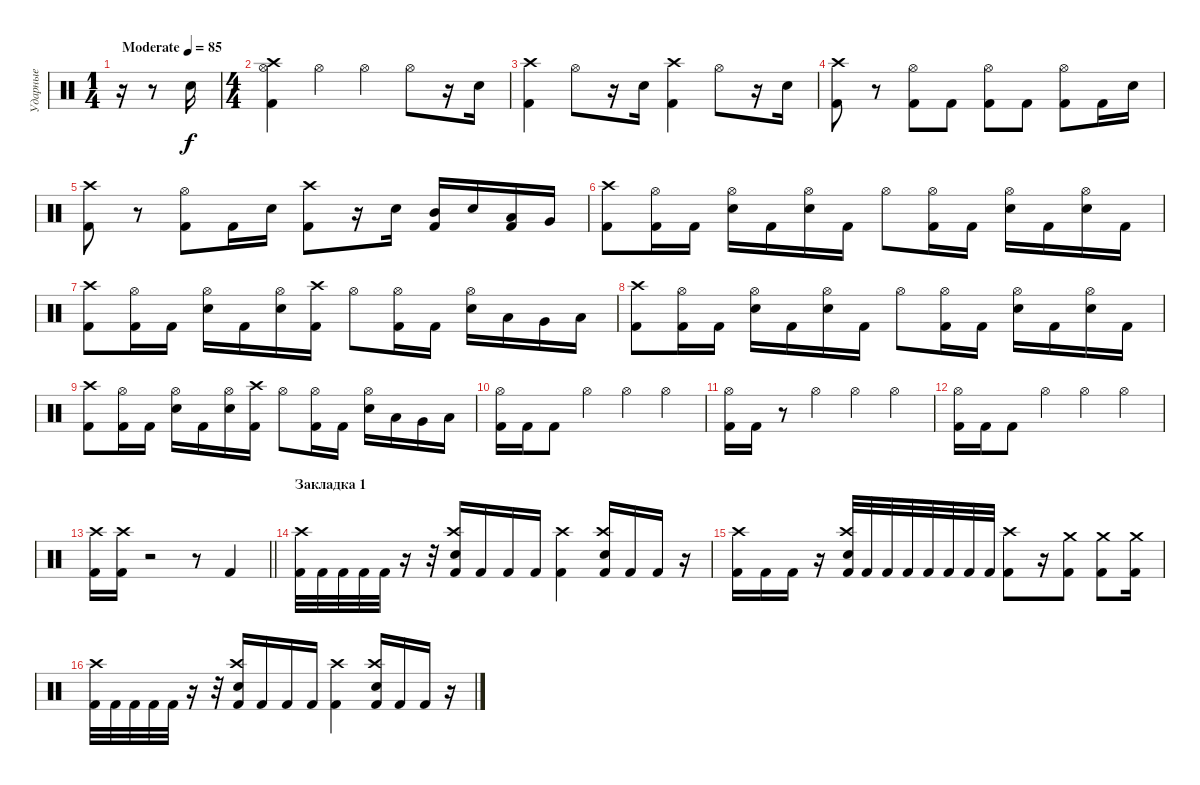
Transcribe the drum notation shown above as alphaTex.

\track ("Ударные" "Ударные") {instrument percussion}
\staff {score}
\articulation defaults
\ts (1 4)
\tempo (85 "Moderate")
\clef neutral
\ks c
r.16{dy f} r.8 "Electric Snare (hit)".16 |
\ts (4 4)
("Crash high (hit)" "Hi-Hat (open)" "Kick (hit) 2").4 "Hi-Hat (open)".4 "Hi-Hat (open)".4 "Hi-Hat (open)".8 r.16 "Electric Snare (hit)".16 |
("Crash high (hit)" "Kick (hit) 2").4 "Hi-Hat (open)".8 r.16 "Electric Snare (hit)".16 ("Crash high (hit)" "Kick (hit) 2").4 "Hi-Hat (open)".8 r.16 "Electric Snare (hit)".16 |
("Crash high (hit)" "Kick (hit) 2").8 r.8 ("Hi-Hat (open)" "Kick (hit) 2").8 "Kick (hit) 2".8 ("Hi-Hat (open)" "Kick (hit) 2").8 "Kick (hit) 2".8 ("Hi-Hat (open)" "Kick (hit) 2").8 "Kick (hit) 2".16 "Electric Snare (hit)".16 |
("Crash high (hit)" "Kick (hit) 2").8 r.8 ("Hi-Hat (open)" "Kick (hit) 2").8 "Kick (hit) 2".16 "Electric Snare (hit)".16 ("Crash high (hit)" "Kick (hit) 2").8 r.16 "Electric Snare (hit)".16 ("Mid Tom (hit)" "Kick (hit) 2").16 "Electric Snare (hit)".16 ("Low Tom (hit)" "Kick (hit) 2").16 "Very Low Tom (hit)".16 |
("Crash high (hit)" "Kick (hit) 2").8 ("Hi-Hat (open)" "Kick (hit) 2").16 "Kick (hit) 2".16 ("Hi-Hat (open)" "Electric Snare (hit)").16 "Kick (hit) 2".16 ("Hi-Hat (open)" "Electric Snare (hit)").16 "Kick (hit) 2".16 "Hi-Hat (open)".8 ("Hi-Hat (open)" "Kick (hit) 2").16 "Kick (hit) 2".16 ("Hi-Hat (open)" "Electric Snare (hit)").16 "Kick (hit) 2".16 ("Hi-Hat (open)" "Electric Snare (hit)").16 "Kick (hit) 2".16 |
("Crash high (hit)" "Kick (hit) 2").8 ("Hi-Hat (open)" "Kick (hit) 2").16 "Kick (hit) 2".16 ("Hi-Hat (open)" "Electric Snare (hit)").16 "Kick (hit) 2".16 ("Hi-Hat (open)" "Electric Snare (hit)").16 ("Crash high (hit)" "Kick (hit) 2").16 "Hi-Hat (open)".8 ("Hi-Hat (open)" "Kick (hit) 2").16 "Kick (hit) 2".16 ("Hi-Hat (open)" "Electric Snare (hit)").16 "Low Tom (hit)".16 "Very Low Tom (hit)".16 "Low Floor Tom (hit)".16 |
("Crash high (hit)" "Kick (hit) 2").8 ("Hi-Hat (open)" "Kick (hit) 2").16 "Kick (hit) 2".16 ("Hi-Hat (open)" "Electric Snare (hit)").16 "Kick (hit) 2".16 ("Hi-Hat (open)" "Electric Snare (hit)").16 "Kick (hit) 2".16 "Hi-Hat (open)".8 ("Hi-Hat (open)" "Kick (hit) 2").16 "Kick (hit) 2".16 ("Hi-Hat (open)" "Electric Snare (hit)").16 "Kick (hit) 2".16 ("Hi-Hat (open)" "Electric Snare (hit)").16 "Kick (hit) 2".16 |
("Crash high (hit)" "Kick (hit) 2").8 ("Hi-Hat (open)" "Kick (hit) 2").16 "Kick (hit) 2".16 ("Hi-Hat (open)" "Electric Snare (hit)").16 "Kick (hit) 2".16 ("Hi-Hat (open)" "Electric Snare (hit)").16 ("Crash high (hit)" "Kick (hit) 2").16 "Hi-Hat (open)".8 ("Hi-Hat (open)" "Kick (hit) 2").16 "Kick (hit) 2".16 ("Hi-Hat (open)" "Electric Snare (hit)").16 "Low Tom (hit)".16 "Very Low Tom (hit)".16 "Low Floor Tom (hit)".16 |
("Hi-Hat (open)" "Kick (hit) 2").16 "Kick (hit) 2".16 "Kick (hit) 2".8 "Hi-Hat (open)".4 "Hi-Hat (open)".4 "Hi-Hat (open)".4 |
("Hi-Hat (open)" "Kick (hit) 2").16 "Kick (hit) 2".16 r.8 "Hi-Hat (open)".4 "Hi-Hat (open)".4 "Hi-Hat (open)".4 |
("Hi-Hat (open)" "Kick (hit) 2").16 "Kick (hit) 2".16 "Kick (hit) 2".8 "Hi-Hat (open)".4 "Hi-Hat (open)".4 "Hi-Hat (open)".4 |
\barLineRight lightlight
("Crash high (hit)" "Kick (hit) 2").16 ("Crash high (hit)" "Kick (hit) 2").16 r.2 r.8 "Kick (hit) 2".4 |
\section ("" "Закладка 1")
("Crash high (hit)" "Kick (hit) 2").32 "Kick (hit) 2".32 "Kick (hit) 2".32 "Kick (hit) 2".32 "Kick (hit) 2".32 r.16 r.32 ("Crash high (hit)" "Electric Snare (hit)" "Kick (hit) 2").16 "Kick (hit) 2".16 "Kick (hit) 2".16 "Kick (hit) 2".16 ("Crash high (hit)" "Kick (hit) 2").4 ("Crash high (hit)" "Electric Snare (hit)" "Kick (hit) 2").16 "Kick (hit) 2".16 "Kick (hit) 2".16 r.16 |
("Crash high (hit)" "Kick (hit) 2").16 "Kick (hit) 2".16 "Kick (hit) 2".16 r.16 ("Crash high (hit)" "Electric Snare (hit)" "Kick (hit) 2").32 "Kick (hit) 2".32 "Kick (hit) 2".32 "Kick (hit) 2".32 "Kick (hit) 2".32 "Kick (hit) 2".32 "Kick (hit) 2".32 "Kick (hit) 2".32 ("Crash high (hit)" "Kick (hit) 2").8 r.16 ("Crash medium (hit)" "Kick (hit) 2").8 ("Crash medium (hit)" "Kick (hit) 2").8 ("Crash medium (hit)" "Kick (hit) 2").16 |
("Crash high (hit)" "Kick (hit) 2").32 "Kick (hit) 2".32 "Kick (hit) 2".32 "Kick (hit) 2".32 "Kick (hit) 2".32 r.16 r.32 ("Crash high (hit)" "Electric Snare (hit)" "Kick (hit) 2").16 "Kick (hit) 2".16 "Kick (hit) 2".16 "Kick (hit) 2".16 ("Crash high (hit)" "Kick (hit) 2").4 ("Crash high (hit)" "Electric Snare (hit)" "Kick (hit) 2").16 "Kick (hit) 2".16 "Kick (hit) 2".16 r.16
